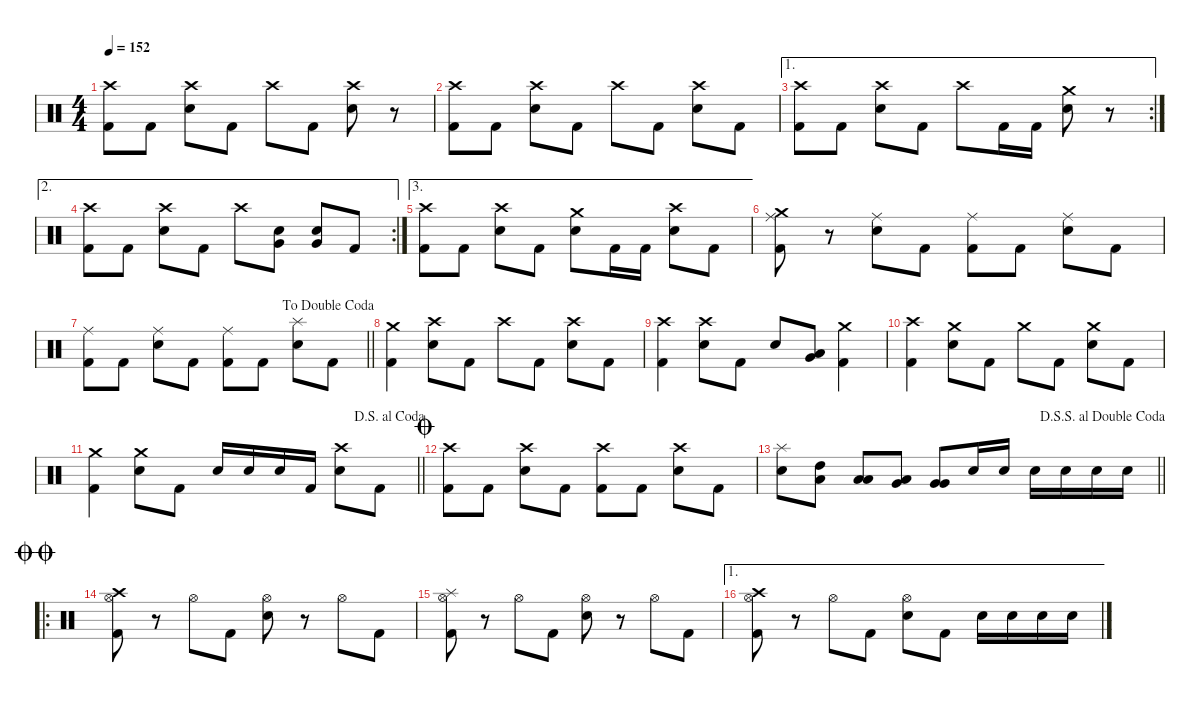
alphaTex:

\defaultSystemsLayout 4
\hideDynamics
\bracketExtendMode nobrackets
\singleTrackTrackNamePolicy hidden
\multiTrackTrackNamePolicy hidden
\firstSystemTrackNameMode fullname
\firstSystemTrackNameOrientation horizontal
\otherSystemsTrackNameOrientation horizontal
\track ("Percussion" "drm.") {defaultSystemsLayout 4 instrument percussion}
\staff {score}
\articulation defaults
\ts (4 4)
\tempo 152
\clef neutral
\ks c
("Crash high (hit)" "Kick (hit) 2").8{dy f beam Down} "Kick (hit) 2".8{beam Down} ("Crash high (hit)" "Snare (hit) 2").8{beam Down} "Kick (hit) 2".8{beam Down} "Crash high (hit)".8{beam Down} "Kick (hit) 2".8{beam Down} ("Crash high (hit)" "Snare (hit) 2").8{beam Down} r.8{beam Down} |
("Crash high (hit)" "Kick (hit) 2").8{beam Down} "Kick (hit) 2".8{beam Down} ("Crash high (hit)" "Snare (hit) 2").8{beam Down} "Kick (hit) 2".8{beam Down} "Crash high (hit)".8{beam Down} "Kick (hit) 2".8{beam Down} ("Crash high (hit)" "Snare (hit) 2").8{beam Down} "Kick (hit) 2".8{beam Down} |
\ae 1
\rc 2
("Crash high (hit)" "Kick (hit) 2").8{beam Down} "Kick (hit) 2".8{beam Down} ("Crash high (hit)" "Snare (hit) 2").8{beam Down} "Kick (hit) 2".8{beam Down} "Crash high (hit)".8{beam Down} "Kick (hit) 2".16{beam Down} "Kick (hit) 2".16{beam Down} ("Crash medium (hit)" "Snare (hit) 2").8{beam Down} r.8{beam Down} |
\ae 2
\rc 2
("Crash high (hit)" "Kick (hit) 2").8{beam Down} "Kick (hit) 2".8{beam Down} ("Crash high (hit)" "Snare (hit) 2").8{beam Down} "Kick (hit) 2".8{beam Down} "Crash high (hit)".8{beam Down} ("Very Low Tom (hit)" "Snare (hit) 2").8{beam Down} ("Very Low Tom (hit)" "Snare (hit) 2").8{beam Up} "Kick (hit) 2".8{beam Up} |
\ae 3
("Crash high (hit)" "Kick (hit) 2").8{beam Down} "Kick (hit) 2".8{beam Down} ("Crash high (hit)" "Snare (hit) 2").8{beam Down} "Kick (hit) 2".8{beam Down} ("Crash medium (hit)" "Snare (hit) 2").8{beam Down} "Kick (hit) 2".16{beam Down} "Kick (hit) 2".16{beam Down} ("Crash high (hit)" "Snare (hit) 2").8{beam Down} "Kick (hit) 2".8{beam Down} |
("Crash medium (hit)" "Ride (middle)" "Kick (hit) 2").8{beam Down} r.8{beam Down} ("Ride (middle)" "Snare (hit) 2").8{beam Down} "Kick (hit) 2".8{beam Down} ("Ride (middle)" "Kick (hit) 2").8{beam Down} "Kick (hit) 2".8{beam Down} ("Ride (middle)" "Snare (hit) 2").8{beam Down} "Kick (hit) 2".8{beam Down} |
\jump dadoublecoda
\barLineRight lightlight
("Ride (middle)" "Kick (hit) 2").8{beam Down} "Kick (hit) 2".8{beam Down} ("Ride (middle)" "Snare (hit) 2").8{beam Down} "Kick (hit) 2".8{beam Down} ("Ride (middle)" "Kick (hit) 2").8{beam Down} "Kick (hit) 2".8{beam Down} ("Splash (hit)" "Snare (hit) 2").8{beam Down} "Kick (hit) 2".8{beam Down} |
("Crash medium (hit)" "Kick (hit) 2").4{beam Down} ("Crash high (hit)" "Snare (hit) 2").8{beam Down} "Kick (hit) 2".8{beam Down} "Crash high (hit)".8{beam Down} "Kick (hit) 2".8{beam Down} ("Crash high (hit)" "Snare (hit) 2").8{beam Down} "Kick (hit) 2".8{beam Down} |
("Crash high (hit)" "Kick (hit) 2").4{beam Down} ("Crash high (hit)" "Snare (hit) 2").8{beam Down} "Kick (hit) 2".8{beam Down} "Snare (hit) 2".8{beam Up} ("Low Tom (hit)" "Very Low Tom (hit)").8{beam Up} ("Crash medium (hit)" "Kick (hit) 2").4{beam Down} |
("Crash high (hit)" "Kick (hit) 2").4{beam Down} ("Crash medium (hit)" "Snare (hit) 2").8{beam Down} "Kick (hit) 2".8{beam Down} "Crash medium (hit)".8{beam Down} "Kick (hit) 2".8{beam Down} ("Crash medium (hit)" "Snare (hit) 2").8{beam Down} "Kick (hit) 2".8{beam Down} |
\jump dalsegnoalcoda
\barLineRight lightlight
("Crash medium (hit)" "Kick (hit) 2").4{beam Down} ("Crash medium (hit)" "Snare (hit) 2").8{beam Down} "Kick (hit) 2".8{beam Down} "Snare (hit) 2".16{beam Up} "Snare (hit) 2".16{beam Up} "Snare (hit) 2".16{beam Up} "Kick (hit) 2".16{beam Up} ("Crash high (hit)" "Snare (hit) 2").8{beam Down} "Kick (hit) 2".8{beam Down} |
\jump coda
("Crash high (hit)" "Kick (hit) 2").8{beam Down} "Kick (hit) 2".8{beam Down} ("Crash high (hit)" "Snare (hit) 2").8{beam Down} "Kick (hit) 2".8{beam Down} ("Crash high (hit)" "Kick (hit) 2").8{beam Down} "Kick (hit) 2".8{beam Down} ("Crash high (hit)" "Snare (hit) 2").8{beam Down} "Kick (hit) 2".8{beam Down} |
\jump dalsegnosegnoaldoublecoda
\barLineRight lightlight
("Splash (hit)" "Snare (hit) 2").8{beam Down} ("High Tom (hit)" "Low Tom (hit)").8{beam Down} ("Low Tom (hit)" "Low Tom (hit)").8{beam Up} ("Low Tom (hit)" "Very Low Tom (hit)").8{beam Up} ("Very Low Tom (hit)" "Very Low Tom (hit)").8{beam Up} "Snare (hit) 2".16{beam Up} "Snare (hit) 2".16{beam Up} "Snare (hit) 2".16{beam Down} "Snare (hit) 2".16{beam Down} "Snare (hit) 2".16{beam Down} "Snare (hit) 2".16{beam Down} |
\ro
\jump doublecoda
("Crash high (hit)" "Hi-Hat (open)" "Kick (hit) 2").8{beam Down} r.8{beam Down} "Hi-Hat (open)".8{beam Down} "Kick (hit) 2".8{beam Down} ("Snare (hit) 2" "Hi-Hat (open)").8{beam Down} r.8{beam Down} "Hi-Hat (open)".8{beam Down} "Kick (hit) 2".8{beam Down} |
("Splash (hit)" "Hi-Hat (open)" "Kick (hit) 2").8{beam Down} r.8{beam Down} "Hi-Hat (open)".8{beam Down} "Kick (hit) 2".8{beam Down} ("Snare (hit) 2" "Hi-Hat (open)").8{beam Down} r.8{beam Down} "Hi-Hat (open)".8{beam Down} "Kick (hit) 2".8{beam Down} |
\ae 1
("Crash high (hit)" "Hi-Hat (open)" "Kick (hit) 2").8{beam Down} r.8{beam Down} "Hi-Hat (open)".8{beam Down} "Kick (hit) 2".8{beam Down} ("Snare (hit) 2" "Hi-Hat (open)").8{beam Down} "Kick (hit) 2".8{beam Down} "Snare (hit) 2".16{beam Down} "Snare (hit) 2".16{beam Down} "Snare (hit) 2".16{beam Down} "Snare (hit) 2".16{beam Down}
